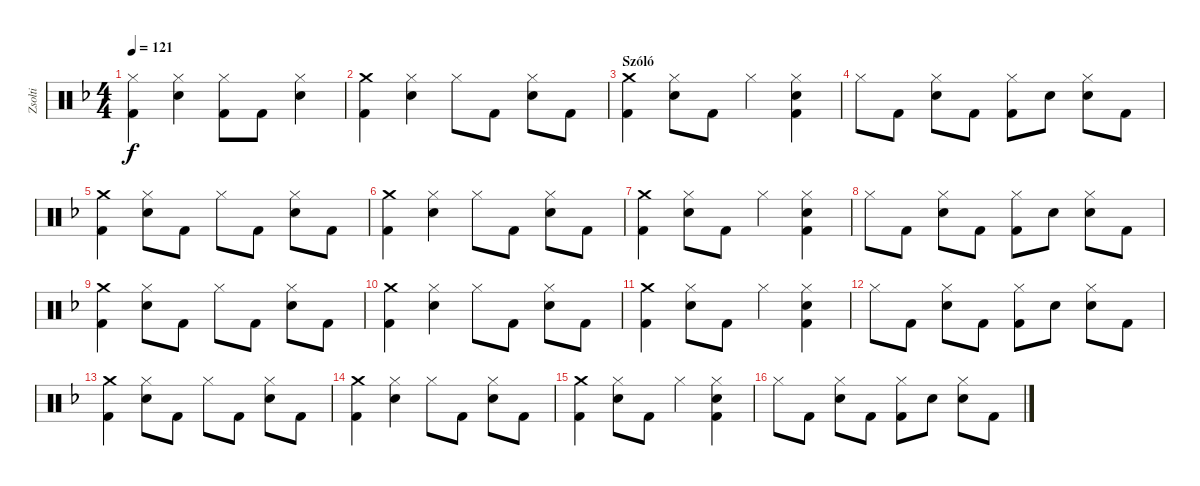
\track ("Zsolti" "Zsolti") {instrument percussion}
\staff {score}
\articulation defaults
\ts (4 4)
\tempo 121
\clef neutral
\ks dminor
("Hi-Hat (closed)" "Kick (hit) 2").4{dy f} ("Hi-Hat (closed)" "Snare (hit) 2").4 ("Hi-Hat (closed)" "Kick (hit) 2").8 "Kick (hit) 2".8 ("Hi-Hat (closed)" "Snare (hit) 2").4 |
("Crash medium (hit)" "Kick (hit) 2").4 ("Hi-Hat (closed)" "Snare (hit) 2").4 "Hi-Hat (closed)".8 "Kick (hit) 2".8 ("Hi-Hat (closed)" "Snare (hit) 2").8 "Kick (hit) 2".8 |
\section ("" "Szóló")
("Crash medium (hit)" "Kick (hit) 2").4 ("Hi-Hat (closed)" "Snare (hit) 2").8 "Kick (hit) 2".8 "Hi-Hat (closed)".4 ("Hi-Hat (closed)" "Snare (hit) 2" "Kick (hit) 2").4 |
"Hi-Hat (closed)".8 "Kick (hit) 2".8 ("Hi-Hat (closed)" "Snare (hit) 2").8 "Kick (hit) 2".8 ("Hi-Hat (closed)" "Kick (hit) 2").8 "Snare (hit) 2".8 ("Hi-Hat (closed)" "Snare (hit) 2").8 "Kick (hit) 2".8 |
("Crash medium (hit)" "Kick (hit) 2").4 ("Hi-Hat (closed)" "Snare (hit) 2").8 "Kick (hit) 2".8 "Hi-Hat (closed)".8 "Kick (hit) 2".8 ("Hi-Hat (closed)" "Snare (hit) 2").8 "Kick (hit) 2".8 |
("Crash medium (hit)" "Kick (hit) 2").4 ("Hi-Hat (closed)" "Snare (hit) 2").4 "Hi-Hat (closed)".8 "Kick (hit) 2".8 ("Hi-Hat (closed)" "Snare (hit) 2").8 "Kick (hit) 2".8 |
("Crash medium (hit)" "Kick (hit) 2").4 ("Hi-Hat (closed)" "Snare (hit) 2").8 "Kick (hit) 2".8 "Hi-Hat (closed)".4 ("Hi-Hat (closed)" "Snare (hit) 2" "Kick (hit) 2").4 |
"Hi-Hat (closed)".8 "Kick (hit) 2".8 ("Hi-Hat (closed)" "Snare (hit) 2").8 "Kick (hit) 2".8 ("Hi-Hat (closed)" "Kick (hit) 2").8 "Snare (hit) 2".8 ("Hi-Hat (closed)" "Snare (hit) 2").8 "Kick (hit) 2".8 |
("Crash medium (hit)" "Kick (hit) 2").4 ("Hi-Hat (closed)" "Snare (hit) 2").8 "Kick (hit) 2".8 "Hi-Hat (closed)".8 "Kick (hit) 2".8 ("Hi-Hat (closed)" "Snare (hit) 2").8 "Kick (hit) 2".8 |
("Crash medium (hit)" "Kick (hit) 2").4 ("Hi-Hat (closed)" "Snare (hit) 2").4 "Hi-Hat (closed)".8 "Kick (hit) 2".8 ("Hi-Hat (closed)" "Snare (hit) 2").8 "Kick (hit) 2".8 |
("Crash medium (hit)" "Kick (hit) 2").4 ("Hi-Hat (closed)" "Snare (hit) 2").8 "Kick (hit) 2".8 "Hi-Hat (closed)".4 ("Hi-Hat (closed)" "Snare (hit) 2" "Kick (hit) 2").4 |
"Hi-Hat (closed)".8 "Kick (hit) 2".8 ("Hi-Hat (closed)" "Snare (hit) 2").8 "Kick (hit) 2".8 ("Hi-Hat (closed)" "Kick (hit) 2").8 "Snare (hit) 2".8 ("Hi-Hat (closed)" "Snare (hit) 2").8 "Kick (hit) 2".8 |
("Crash medium (hit)" "Kick (hit) 2").4 ("Hi-Hat (closed)" "Snare (hit) 2").8 "Kick (hit) 2".8 "Hi-Hat (closed)".8 "Kick (hit) 2".8 ("Hi-Hat (closed)" "Snare (hit) 2").8 "Kick (hit) 2".8 |
("Crash medium (hit)" "Kick (hit) 2").4 ("Hi-Hat (closed)" "Snare (hit) 2").4 "Hi-Hat (closed)".8 "Kick (hit) 2".8 ("Hi-Hat (closed)" "Snare (hit) 2").8 "Kick (hit) 2".8 |
("Crash medium (hit)" "Kick (hit) 2").4 ("Hi-Hat (closed)" "Snare (hit) 2").8 "Kick (hit) 2".8 "Hi-Hat (closed)".4 ("Hi-Hat (closed)" "Snare (hit) 2" "Kick (hit) 2").4 |
"Hi-Hat (closed)".8 "Kick (hit) 2".8 ("Hi-Hat (closed)" "Snare (hit) 2").8 "Kick (hit) 2".8 ("Hi-Hat (closed)" "Kick (hit) 2").8 "Snare (hit) 2".8 ("Hi-Hat (closed)" "Snare (hit) 2").8 "Kick (hit) 2".8
